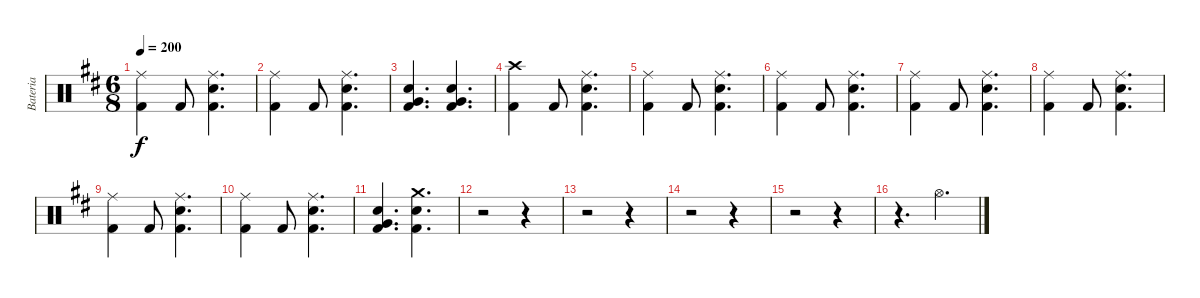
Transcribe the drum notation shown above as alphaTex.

\track ("Bateria" "Bateria") {instrument percussion}
\staff {score}
\articulation defaults
\ts (6 8)
\tempo 200
\clef neutral
\ks bminor
("Ride (middle)" "Kick (hit) 2").4{dy f} "Kick (hit) 2".8 ("Ride (middle)" "Electric Snare (hit)" "Kick (hit) 2").4{d} |
("Ride (middle)" "Kick (hit) 2").4 "Kick (hit) 2".8 ("Ride (middle)" "Electric Snare (hit)" "Kick (hit) 2").4{d} |
("Very Low Tom (hit)" "Electric Snare (hit)" "Kick (hit) 2").4{d} ("Very Low Tom (hit)" "Electric Snare (hit)" "Kick (hit) 2").4{d} |
("Crash high (hit)" "Kick (hit) 2").4 "Kick (hit) 2".8 ("Ride (middle)" "Electric Snare (hit)" "Kick (hit) 2").4{d} |
("Ride (middle)" "Kick (hit) 2").4 "Kick (hit) 2".8 ("Ride (middle)" "Electric Snare (hit)" "Kick (hit) 2").4{d} |
("Ride (middle)" "Kick (hit) 2").4 "Kick (hit) 2".8 ("Ride (middle)" "Electric Snare (hit)" "Kick (hit) 2").4{d} |
("Ride (middle)" "Kick (hit) 2").4 "Kick (hit) 2".8 ("Ride (middle)" "Electric Snare (hit)" "Kick (hit) 2").4{d} |
("Ride (middle)" "Kick (hit) 2").4 "Kick (hit) 2".8 ("Ride (middle)" "Electric Snare (hit)" "Kick (hit) 2").4{d} |
("Ride (middle)" "Kick (hit) 2").4 "Kick (hit) 2".8 ("Ride (middle)" "Electric Snare (hit)" "Kick (hit) 2").4{d} |
("Ride (middle)" "Kick (hit) 2").4 "Kick (hit) 2".8 ("Ride (middle)" "Electric Snare (hit)" "Kick (hit) 2").4{d} |
("Very Low Tom (hit)" "Electric Snare (hit)" "Kick (hit) 2").4{d} ("Crash medium (hit)" "Electric Snare (hit)" "Kick (hit) 2").4{d} |
r.2 r.4 |
r.2 r.4 |
r.2 r.4 |
r.2 r.4 |
r.4{d} "Hi-Hat (open)".4{d}
